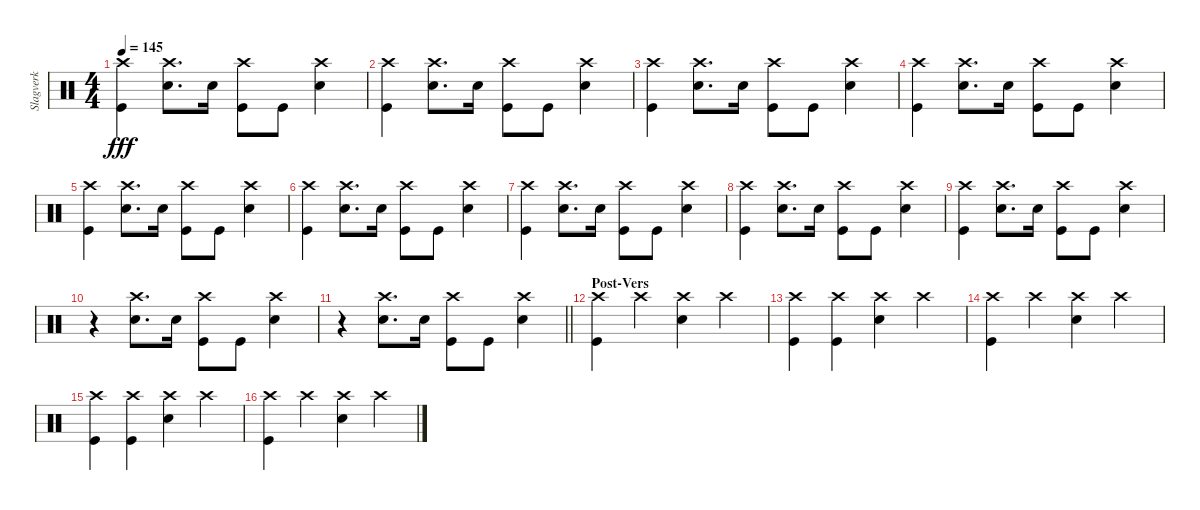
\track ("Slagverk" "Slagverk") {instrument percussion}
\staff {score}
\articulation defaults
\ts (4 4)
\tempo 145
\clef neutral
\ks c
("Crash high (hit)" "Kick (hit)").4{dy fff} ("Crash high (hit)" "Snare (hit) 2").8{d} "Snare (hit) 2".16 ("Crash high (hit)" "Kick (hit)").8 "Kick (hit)".8 ("Crash high (hit)" "Snare (hit) 2").4 |
("Crash high (hit)" "Kick (hit)").4 ("Crash high (hit)" "Snare (hit) 2").8{d} "Snare (hit) 2".16 ("Crash high (hit)" "Kick (hit)").8 "Kick (hit)".8 ("Crash high (hit)" "Snare (hit) 2").4 |
("Crash high (hit)" "Kick (hit)").4 ("Crash high (hit)" "Snare (hit) 2").8{d} "Snare (hit) 2".16 ("Crash high (hit)" "Kick (hit)").8 "Kick (hit)".8 ("Crash high (hit)" "Snare (hit) 2").4 |
("Crash high (hit)" "Kick (hit)").4 ("Crash high (hit)" "Snare (hit) 2").8{d} "Snare (hit) 2".16 ("Crash high (hit)" "Kick (hit)").8 "Kick (hit)".8 ("Crash high (hit)" "Snare (hit) 2").4 |
("Crash high (hit)" "Kick (hit)").4 ("Crash high (hit)" "Snare (hit) 2").8{d} "Snare (hit) 2".16 ("Crash high (hit)" "Kick (hit)").8 "Kick (hit)".8 ("Crash high (hit)" "Snare (hit) 2").4 |
("Crash high (hit)" "Kick (hit)").4 ("Crash high (hit)" "Snare (hit) 2").8{d} "Snare (hit) 2".16 ("Crash high (hit)" "Kick (hit)").8 "Kick (hit)".8 ("Crash high (hit)" "Snare (hit) 2").4 |
("Crash high (hit)" "Kick (hit)").4 ("Crash high (hit)" "Snare (hit) 2").8{d} "Snare (hit) 2".16 ("Crash high (hit)" "Kick (hit)").8 "Kick (hit)".8 ("Crash high (hit)" "Snare (hit) 2").4 |
("Crash high (hit)" "Kick (hit)").4 ("Crash high (hit)" "Snare (hit) 2").8{d} "Snare (hit) 2".16 ("Crash high (hit)" "Kick (hit)").8 "Kick (hit)".8 ("Crash high (hit)" "Snare (hit) 2").4 |
("Crash high (hit)" "Kick (hit)").4 ("Crash high (hit)" "Snare (hit) 2").8{d} "Snare (hit) 2".16 ("Crash high (hit)" "Kick (hit)").8 "Kick (hit)".8 ("Crash high (hit)" "Snare (hit) 2").4 |
r.4 ("Crash high (hit)" "Snare (hit) 2").8{d} "Snare (hit) 2".16 ("Crash high (hit)" "Kick (hit)").8 "Kick (hit)".8 ("Crash high (hit)" "Snare (hit) 2").4 |
\barLineRight lightlight
r.4 ("Crash high (hit)" "Snare (hit) 2").8{d} "Snare (hit) 2".16 ("Crash high (hit)" "Kick (hit)").8 "Kick (hit)".8 ("Crash high (hit)" "Snare (hit) 2").4 |
\section ("" "Post-Vers")
("Crash high (hit)" "Kick (hit)").4 "Crash high (hit)".4 ("Crash high (hit)" "Snare (hit) 2").4 "Crash high (hit)".4 |
("Crash high (hit)" "Kick (hit)").4 ("Crash high (hit)" "Kick (hit)").4 ("Crash high (hit)" "Snare (hit) 2").4 "Crash high (hit)".4 |
("Crash high (hit)" "Kick (hit)").4 "Crash high (hit)".4 ("Crash high (hit)" "Snare (hit) 2").4 "Crash high (hit)".4 |
("Crash high (hit)" "Kick (hit)").4 ("Crash high (hit)" "Kick (hit)").4 ("Crash high (hit)" "Snare (hit) 2").4 "Crash high (hit)".4 |
("Crash high (hit)" "Kick (hit)").4 "Crash high (hit)".4 ("Crash high (hit)" "Snare (hit) 2").4 "Crash high (hit)".4
